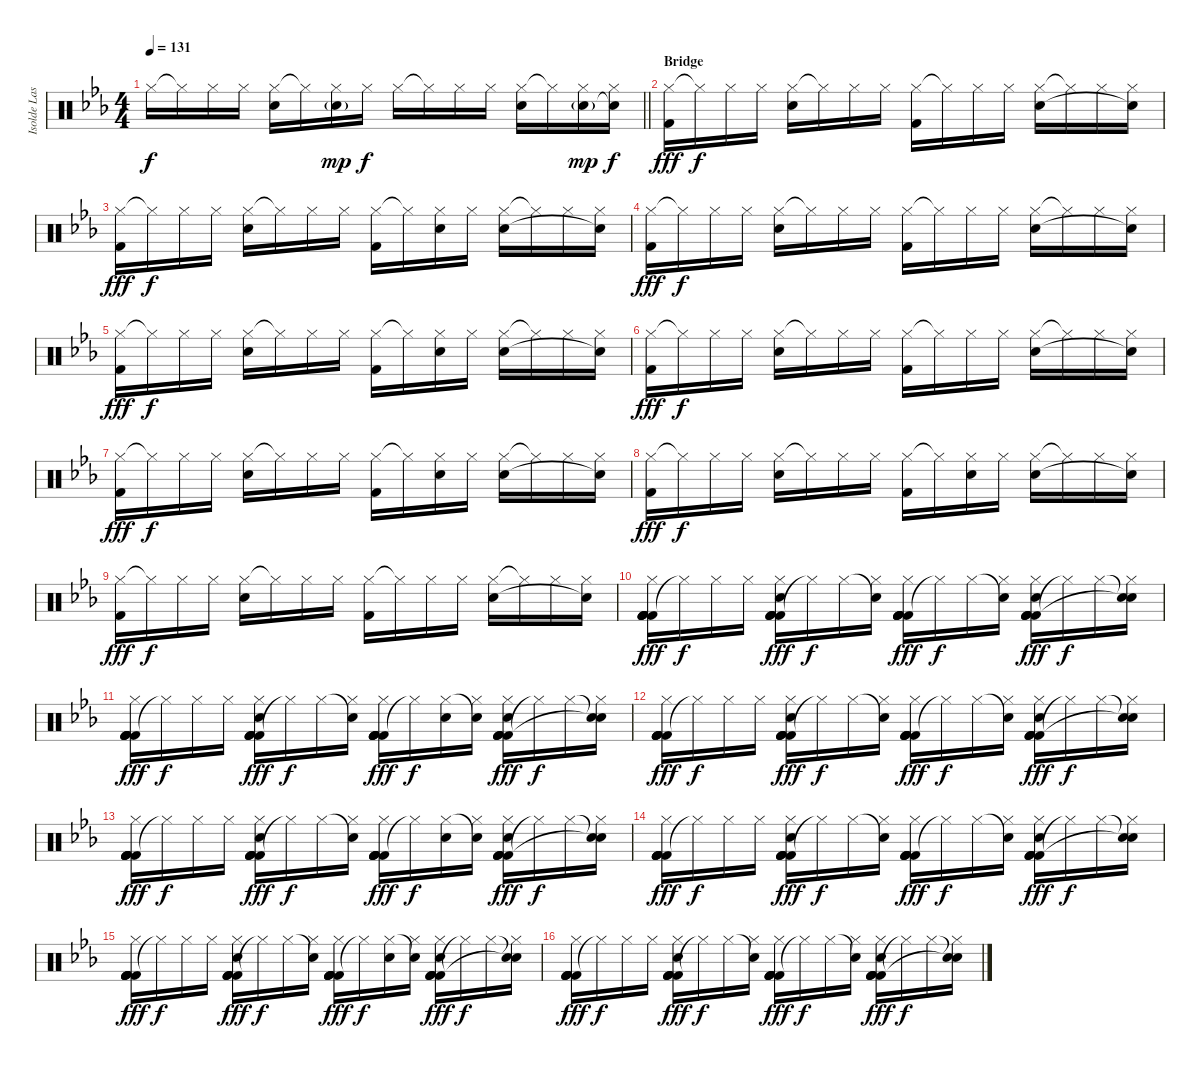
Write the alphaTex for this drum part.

\track ("Isolde Lasoen (Percussion)" "Isolde Las") {instrument percussion}
\staff {score}
\articulation defaults
\ts (4 4)
\tempo 131
\clef neutral
\barLineRight lightlight
\ks cminor "Hi-Hat (closed)".16{dy f} "Hi-Hat (closed)"{t}.16 "Hi-Hat (closed)".16 "Hi-Hat (closed)".16
("Hi-Hat (closed)" "Hand Clap (hit)").16 "Hi-Hat (closed)"{t}.16 ("Hi-Hat (closed)" "Hand Clap (hit)"{g}).16{dy mp} "Hi-Hat (closed)".16{dy f} "Hi-Hat (closed)".16 "Hi-Hat (closed)"{t}.16 "Hi-Hat (closed)".16 "Hi-Hat (closed)".16 ("Hi-Hat (closed)" "Hand Clap (hit)").16 "Hi-Hat (closed)"{t}.16 ("Hi-Hat (closed)" "Hand Clap (hit)"{g}).16{dy mp} ("Hi-Hat (closed)" "Snare (hit)"{t}).16{dy f} |
\section ("" "Bridge")
("Hi-Hat (closed)" "Kick (hit) 2").16{dy fff} "Hi-Hat (closed)"{t}.16{dy f} "Hi-Hat (closed)".16 "Hi-Hat (closed)".16 ("Hi-Hat (closed)" "Hand Clap (hit)").16 "Hi-Hat (closed)"{t}.16 "Hi-Hat (closed)".16 "Hi-Hat (closed)".16 ("Hi-Hat (closed)" "Kick (hit) 2").16 "Hi-Hat (closed)"{t}.16 "Hi-Hat (closed)".16 "Hi-Hat (closed)".16 ("Hi-Hat (closed)" "Hand Clap (hit)").16 "Hi-Hat (closed)"{t}.16 "Hi-Hat (closed)".16 ("Hi-Hat (closed)" "Snare (hit)"{t}).16 |
("Hi-Hat (closed)" "Kick (hit) 2").16{dy fff} "Hi-Hat (closed)"{t}.16{dy f} "Hi-Hat (closed)".16 "Hi-Hat (closed)".16 ("Hi-Hat (closed)" "Hand Clap (hit)").16 "Hi-Hat (closed)"{t}.16 "Hi-Hat (closed)".16 "Hi-Hat (closed)".16 ("Hi-Hat (closed)" "Kick (hit) 2").16 "Hi-Hat (closed)"{t}.16 ("Hi-Hat (closed)" "Hand Clap (hit)").16 "Hi-Hat (closed)".16 ("Hi-Hat (closed)" "Hand Clap (hit)").16 "Hi-Hat (closed)"{t}.16 "Hi-Hat (closed)".16 ("Hi-Hat (closed)" "Snare (hit)"{t}).16 |
("Hi-Hat (closed)" "Kick (hit) 2").16{dy fff} "Hi-Hat (closed)"{t}.16{dy f} "Hi-Hat (closed)".16 "Hi-Hat (closed)".16 ("Hi-Hat (closed)" "Hand Clap (hit)").16 "Hi-Hat (closed)"{t}.16 "Hi-Hat (closed)".16 "Hi-Hat (closed)".16 ("Hi-Hat (closed)" "Kick (hit) 2").16 "Hi-Hat (closed)"{t}.16 "Hi-Hat (closed)".16 "Hi-Hat (closed)".16 ("Hi-Hat (closed)" "Hand Clap (hit)").16 "Hi-Hat (closed)"{t}.16 "Hi-Hat (closed)".16 ("Hi-Hat (closed)" "Snare (hit)"{t}).16 |
("Hi-Hat (closed)" "Kick (hit) 2").16{dy fff} "Hi-Hat (closed)"{t}.16{dy f} "Hi-Hat (closed)".16 "Hi-Hat (closed)".16 ("Hi-Hat (closed)" "Hand Clap (hit)").16 "Hi-Hat (closed)"{t}.16 "Hi-Hat (closed)".16 "Hi-Hat (closed)".16 ("Hi-Hat (closed)" "Kick (hit) 2").16 "Hi-Hat (closed)"{t}.16 ("Hi-Hat (closed)" "Hand Clap (hit)").16 "Hi-Hat (closed)".16 ("Hi-Hat (closed)" "Hand Clap (hit)").16 "Hi-Hat (closed)"{t}.16 "Hi-Hat (closed)".16 ("Hi-Hat (closed)" "Snare (hit)"{t}).16 |
("Hi-Hat (closed)" "Kick (hit) 2").16{dy fff} "Hi-Hat (closed)"{t}.16{dy f} "Hi-Hat (closed)".16 "Hi-Hat (closed)".16 ("Hi-Hat (closed)" "Hand Clap (hit)").16 "Hi-Hat (closed)"{t}.16 "Hi-Hat (closed)".16 "Hi-Hat (closed)".16 ("Hi-Hat (closed)" "Kick (hit) 2").16 "Hi-Hat (closed)"{t}.16 "Hi-Hat (closed)".16 "Hi-Hat (closed)".16 ("Hi-Hat (closed)" "Hand Clap (hit)").16 "Hi-Hat (closed)"{t}.16 "Hi-Hat (closed)".16 ("Hi-Hat (closed)" "Snare (hit)"{t}).16 |
("Hi-Hat (closed)" "Kick (hit) 2").16{dy fff} "Hi-Hat (closed)"{t}.16{dy f} "Hi-Hat (closed)".16 "Hi-Hat (closed)".16 ("Hi-Hat (closed)" "Hand Clap (hit)").16 "Hi-Hat (closed)"{t}.16 "Hi-Hat (closed)".16 "Hi-Hat (closed)".16 ("Hi-Hat (closed)" "Kick (hit) 2").16 "Hi-Hat (closed)"{t}.16 ("Hi-Hat (closed)" "Hand Clap (hit)").16 "Hi-Hat (closed)".16 ("Hi-Hat (closed)" "Hand Clap (hit)").16 "Hi-Hat (closed)"{t}.16 "Hi-Hat (closed)".16 ("Hi-Hat (closed)" "Snare (hit)"{t}).16 |
("Hi-Hat (closed)" "Kick (hit) 2").16{dy fff} "Hi-Hat (closed)"{t}.16{dy f} "Hi-Hat (closed)".16 "Hi-Hat (closed)".16 ("Hi-Hat (closed)" "Hand Clap (hit)").16 "Hi-Hat (closed)"{t}.16 "Hi-Hat (closed)".16 "Hi-Hat (closed)".16 ("Hi-Hat (closed)" "Kick (hit) 2").16 "Hi-Hat (closed)"{t}.16 ("Hi-Hat (closed)" "Hand Clap (hit)").16 "Hi-Hat (closed)".16 ("Hi-Hat (closed)" "Hand Clap (hit)").16 "Hi-Hat (closed)"{t}.16 "Hi-Hat (closed)".16 ("Hi-Hat (closed)" "Snare (hit)"{t}).16 |
("Hi-Hat (closed)" "Kick (hit) 2").16{dy fff} "Hi-Hat (closed)"{t}.16{dy f} "Hi-Hat (closed)".16 "Hi-Hat (closed)".16 ("Hi-Hat (closed)" "Hand Clap (hit)").16 "Hi-Hat (closed)"{t}.16 "Hi-Hat (closed)".16 "Hi-Hat (closed)".16 ("Hi-Hat (closed)" "Kick (hit) 2").16 "Hi-Hat (closed)"{t}.16 "Hi-Hat (closed)".16 "Hi-Hat (closed)".16 ("Hi-Hat (closed)" "Hand Clap (hit)").16 "Hi-Hat (closed)"{t}.16 "Hi-Hat (closed)".16 ("Hi-Hat (closed)" "Snare (hit)"{t}).16 |
("Kick (hit) 2" "Kick (hit) 2" "Kick (hit) 2" "Kick (hit) 2" "Hi-Hat (closed)" "Kick (hit) 2").16{dy fff} "Hi-Hat (closed)"{t}.16{dy f} "Hi-Hat (closed)".16 "Hi-Hat (closed)".16 ("Kick (hit) 2" "Kick (hit) 2" "Kick (hit) 2" "Kick (hit) 2" "Hi-Hat (closed)" "Hand Clap (hit)").16{dy fff} "Hi-Hat (closed)"{t}.16{dy f} "Hi-Hat (closed)".16 ("Snare (hit)"{t} "Hi-Hat (closed)").16 ("Kick (hit) 2" "Kick (hit) 2" "Kick (hit) 2" "Kick (hit) 2" "Hi-Hat (closed)" "Kick (hit) 2").16{dy fff} "Hi-Hat (closed)"{t}.16{dy f} "Hi-Hat (closed)".16 ("Snare (hit)"{t} "Hi-Hat (closed)").16 ("Kick (hit) 2" "Kick (hit) 2" "Kick (hit) 2" "Kick (hit) 2" "Hi-Hat (closed)" "Hand Clap (hit)").16{dy fff} "Hi-Hat (closed)"{t}.16{dy f} "Hi-Hat (closed)".16 ("Snare (hit)"{t} "Hi-Hat (closed)" "Snare (hit)"{t}).16 |
("Kick (hit) 2" "Kick (hit) 2" "Kick (hit) 2" "Kick (hit) 2" "Hi-Hat (closed)" "Kick (hit) 2").16{dy fff} "Hi-Hat (closed)"{t}.16{dy f} "Hi-Hat (closed)".16 "Hi-Hat (closed)".16 ("Kick (hit) 2" "Kick (hit) 2" "Kick (hit) 2" "Kick (hit) 2" "Hi-Hat (closed)" "Hand Clap (hit)").16{dy fff} "Hi-Hat (closed)"{t}.16{dy f} "Hi-Hat (closed)".16 ("Snare (hit)"{t} "Hi-Hat (closed)").16 ("Kick (hit) 2" "Kick (hit) 2" "Kick (hit) 2" "Kick (hit) 2" "Hi-Hat (closed)" "Kick (hit) 2").16{dy fff} "Hi-Hat (closed)"{t}.16{dy f} ("Hi-Hat (closed)" "Hand Clap (hit)").16 ("Snare (hit)"{t} "Hi-Hat (closed)").16 ("Kick (hit) 2" "Kick (hit) 2" "Kick (hit) 2" "Kick (hit) 2" "Hi-Hat (closed)" "Hand Clap (hit)").16{dy fff} "Hi-Hat (closed)"{t}.16{dy f} "Hi-Hat (closed)".16 ("Snare (hit)"{t} "Hi-Hat (closed)" "Snare (hit)"{t}).16 |
("Kick (hit) 2" "Kick (hit) 2" "Kick (hit) 2" "Kick (hit) 2" "Hi-Hat (closed)" "Kick (hit) 2").16{dy fff} "Hi-Hat (closed)"{t}.16{dy f} "Hi-Hat (closed)".16 "Hi-Hat (closed)".16 ("Kick (hit) 2" "Kick (hit) 2" "Kick (hit) 2" "Kick (hit) 2" "Hi-Hat (closed)" "Hand Clap (hit)").16{dy fff} "Hi-Hat (closed)"{t}.16{dy f} "Hi-Hat (closed)".16 ("Snare (hit)"{t} "Hi-Hat (closed)").16 ("Kick (hit) 2" "Kick (hit) 2" "Kick (hit) 2" "Kick (hit) 2" "Hi-Hat (closed)" "Kick (hit) 2").16{dy fff} "Hi-Hat (closed)"{t}.16{dy f} "Hi-Hat (closed)".16 ("Snare (hit)"{t} "Hi-Hat (closed)").16 ("Kick (hit) 2" "Kick (hit) 2" "Kick (hit) 2" "Kick (hit) 2" "Hi-Hat (closed)" "Hand Clap (hit)").16{dy fff} "Hi-Hat (closed)"{t}.16{dy f} "Hi-Hat (closed)".16 ("Snare (hit)"{t} "Hi-Hat (closed)" "Snare (hit)"{t}).16 |
("Kick (hit) 2" "Kick (hit) 2" "Kick (hit) 2" "Kick (hit) 2" "Hi-Hat (closed)" "Kick (hit) 2").16{dy fff} "Hi-Hat (closed)"{t}.16{dy f} "Hi-Hat (closed)".16 "Hi-Hat (closed)".16 ("Kick (hit) 2" "Kick (hit) 2" "Kick (hit) 2" "Kick (hit) 2" "Hi-Hat (closed)" "Hand Clap (hit)").16{dy fff} "Hi-Hat (closed)"{t}.16{dy f} "Hi-Hat (closed)".16 ("Snare (hit)"{t} "Hi-Hat (closed)").16 ("Kick (hit) 2" "Kick (hit) 2" "Kick (hit) 2" "Kick (hit) 2" "Hi-Hat (closed)" "Kick (hit) 2").16{dy fff} "Hi-Hat (closed)"{t}.16{dy f} ("Hi-Hat (closed)" "Hand Clap (hit)").16 ("Snare (hit)"{t} "Hi-Hat (closed)").16 ("Kick (hit) 2" "Kick (hit) 2" "Kick (hit) 2" "Kick (hit) 2" "Hi-Hat (closed)" "Hand Clap (hit)").16{dy fff} "Hi-Hat (closed)"{t}.16{dy f} "Hi-Hat (closed)".16 ("Snare (hit)"{t} "Hi-Hat (closed)" "Snare (hit)"{t}).16 |
("Kick (hit) 2" "Kick (hit) 2" "Kick (hit) 2" "Kick (hit) 2" "Hi-Hat (closed)" "Kick (hit) 2").16{dy fff} "Hi-Hat (closed)"{t}.16{dy f} "Hi-Hat (closed)".16 "Hi-Hat (closed)".16 ("Kick (hit) 2" "Kick (hit) 2" "Kick (hit) 2" "Kick (hit) 2" "Hi-Hat (closed)" "Hand Clap (hit)").16{dy fff} "Hi-Hat (closed)"{t}.16{dy f} "Hi-Hat (closed)".16 ("Snare (hit)"{t} "Hi-Hat (closed)").16 ("Kick (hit) 2" "Kick (hit) 2" "Kick (hit) 2" "Kick (hit) 2" "Hi-Hat (closed)" "Kick (hit) 2").16{dy fff} "Hi-Hat (closed)"{t}.16{dy f} "Hi-Hat (closed)".16 ("Snare (hit)"{t} "Hi-Hat (closed)").16 ("Kick (hit) 2" "Kick (hit) 2" "Kick (hit) 2" "Kick (hit) 2" "Hi-Hat (closed)" "Hand Clap (hit)").16{dy fff} "Hi-Hat (closed)"{t}.16{dy f} "Hi-Hat (closed)".16 ("Snare (hit)"{t} "Hi-Hat (closed)" "Snare (hit)"{t}).16 |
("Kick (hit) 2" "Kick (hit) 2" "Kick (hit) 2" "Kick (hit) 2" "Hi-Hat (closed)" "Kick (hit) 2").16{dy fff} "Hi-Hat (closed)"{t}.16{dy f} "Hi-Hat (closed)".16 "Hi-Hat (closed)".16 ("Kick (hit) 2" "Kick (hit) 2" "Kick (hit) 2" "Kick (hit) 2" "Hi-Hat (closed)" "Hand Clap (hit)").16{dy fff} "Hi-Hat (closed)"{t}.16{dy f} "Hi-Hat (closed)".16 ("Snare (hit)"{t} "Hi-Hat (closed)").16 ("Kick (hit) 2" "Kick (hit) 2" "Kick (hit) 2" "Kick (hit) 2" "Hi-Hat (closed)" "Kick (hit) 2").16{dy fff} "Hi-Hat (closed)"{t}.16{dy f} ("Hi-Hat (closed)" "Hand Clap (hit)").16 ("Snare (hit)"{t} "Hi-Hat (closed)").16 ("Kick (hit) 2" "Kick (hit) 2" "Kick (hit) 2" "Kick (hit) 2" "Hi-Hat (closed)" "Hand Clap (hit)").16{dy fff} "Hi-Hat (closed)"{t}.16{dy f} "Hi-Hat (closed)".16 ("Snare (hit)"{t} "Hi-Hat (closed)" "Snare (hit)"{t}).16 |
("Kick (hit) 2" "Kick (hit) 2" "Kick (hit) 2" "Kick (hit) 2" "Hi-Hat (closed)" "Kick (hit) 2").16{dy fff} "Hi-Hat (closed)"{t}.16{dy f} "Hi-Hat (closed)".16 "Hi-Hat (closed)".16 ("Kick (hit) 2" "Kick (hit) 2" "Kick (hit) 2" "Kick (hit) 2" "Hi-Hat (closed)" "Hand Clap (hit)").16{dy fff} "Hi-Hat (closed)"{t}.16{dy f} "Hi-Hat (closed)".16 ("Snare (hit)"{t} "Hi-Hat (closed)").16 ("Kick (hit) 2" "Kick (hit) 2" "Kick (hit) 2" "Kick (hit) 2" "Hi-Hat (closed)" "Kick (hit) 2").16{dy fff} "Hi-Hat (closed)"{t}.16{dy f} "Hi-Hat (closed)".16 ("Snare (hit)"{t} "Hi-Hat (closed)").16 ("Kick (hit) 2" "Kick (hit) 2" "Kick (hit) 2" "Kick (hit) 2" "Hi-Hat (closed)" "Hand Clap (hit)").16{dy fff} "Hi-Hat (closed)"{t}.16{dy f} "Hi-Hat (closed)".16 ("Snare (hit)"{t} "Hi-Hat (closed)" "Snare (hit)"{t}).16
